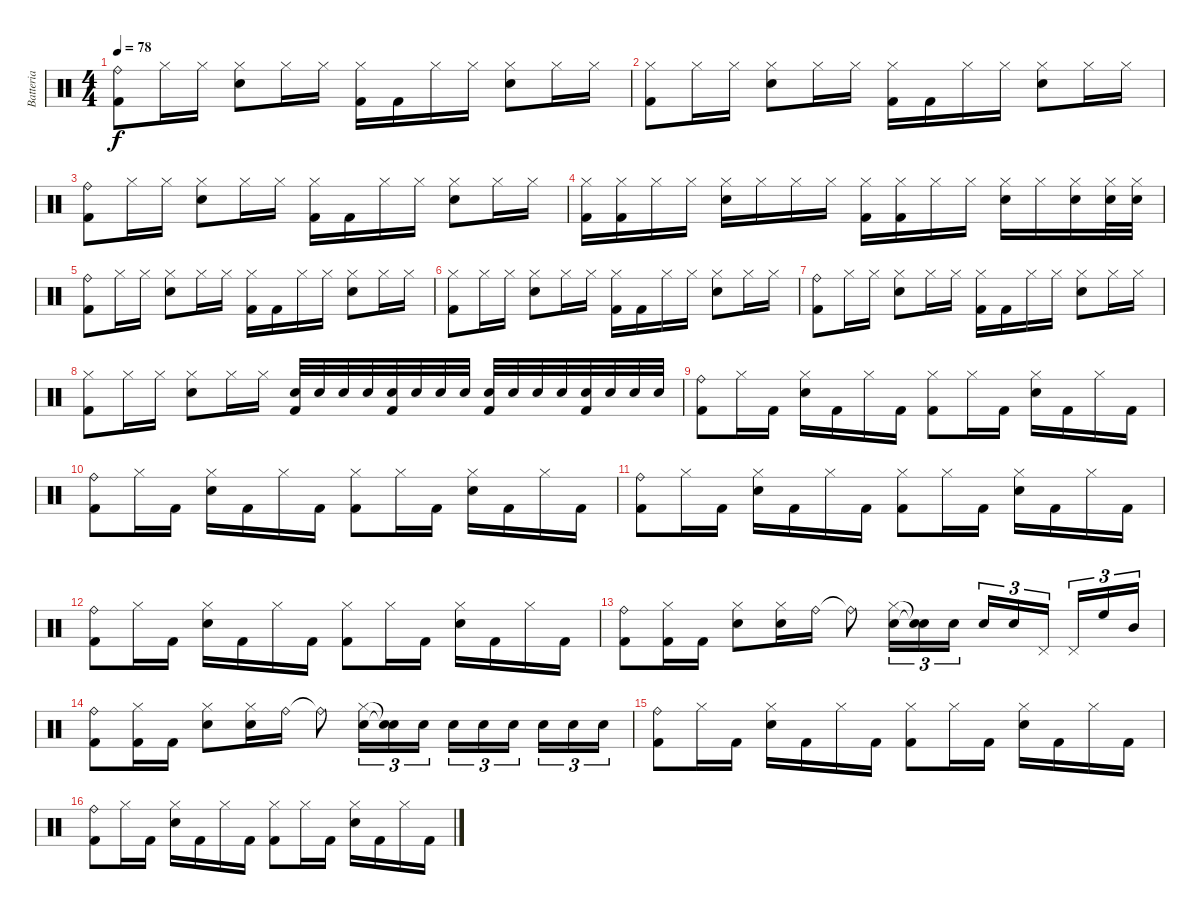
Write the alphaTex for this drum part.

\track ("Batteria" "Batteria") {instrument percussion}
\staff {score}
\articulation defaults
\ts (4 4)
\tempo 78
\clef neutral
\ks c
("Ride (bell)" "Kick (hit) 2").8{dy f} "Hi-Hat (closed)".16 "Hi-Hat (closed)".16 ("Hi-Hat (closed)" "Snare (hit) 2").8 "Hi-Hat (closed)".16 "Hi-Hat (closed)".16 ("Hi-Hat (closed)" "Kick (hit) 2").16 "Kick (hit) 2".16 "Hi-Hat (closed)".16 "Hi-Hat (closed)".16 ("Hi-Hat (closed)" "Snare (hit) 2").8 "Hi-Hat (closed)".16 "Hi-Hat (closed)".16 |
("Hi-Hat (closed)" "Kick (hit) 2").8 "Hi-Hat (closed)".16 "Hi-Hat (closed)".16 ("Hi-Hat (closed)" "Snare (hit) 2").8 "Hi-Hat (closed)".16 "Hi-Hat (closed)".16 ("Hi-Hat (closed)" "Kick (hit) 2").16 "Kick (hit) 2".16 "Hi-Hat (closed)".16 "Hi-Hat (closed)".16 ("Hi-Hat (closed)" "Snare (hit) 2").8 "Hi-Hat (closed)".16 "Hi-Hat (closed)".16 |
("Ride (bell)" "Kick (hit) 2").8 "Hi-Hat (closed)".16 "Hi-Hat (closed)".16 ("Hi-Hat (closed)" "Snare (hit) 2").8 "Hi-Hat (closed)".16 "Hi-Hat (closed)".16 ("Hi-Hat (closed)" "Kick (hit) 2").16 "Kick (hit) 2".16 "Hi-Hat (closed)".16 "Hi-Hat (closed)".16 ("Hi-Hat (closed)" "Snare (hit) 2").8 "Hi-Hat (closed)".16 "Hi-Hat (closed)".16 |
("Hi-Hat (closed)" "Kick (hit) 2").16 ("Hi-Hat (closed)" "Kick (hit) 2").16 "Hi-Hat (closed)".16 "Hi-Hat (closed)".16 ("Hi-Hat (closed)" "Snare (hit) 2").16 "Hi-Hat (closed)".16 "Hi-Hat (closed)".16 "Hi-Hat (closed)".16 ("Hi-Hat (closed)" "Kick (hit) 2").16 ("Hi-Hat (closed)" "Kick (hit) 2").16 "Hi-Hat (closed)".16 "Hi-Hat (closed)".16 ("Hi-Hat (closed)" "Snare (hit) 2").16 "Hi-Hat (closed)".16 ("Hi-Hat (closed)" "Snare (hit) 2").16 ("Hi-Hat (closed)" "Snare (hit) 2").32 ("Hi-Hat (closed)" "Snare (hit) 2").32 |
("Ride (bell)" "Kick (hit) 2").8 "Hi-Hat (closed)".16 "Hi-Hat (closed)".16 ("Hi-Hat (closed)" "Snare (hit) 2").8 "Hi-Hat (closed)".16 "Hi-Hat (closed)".16 ("Hi-Hat (closed)" "Kick (hit) 2").16 "Kick (hit) 2".16 "Hi-Hat (closed)".16 "Hi-Hat (closed)".16 ("Hi-Hat (closed)" "Snare (hit) 2").8 "Hi-Hat (closed)".16 "Hi-Hat (closed)".16 |
("Hi-Hat (closed)" "Kick (hit) 2").8 "Hi-Hat (closed)".16 "Hi-Hat (closed)".16 ("Hi-Hat (closed)" "Snare (hit) 2").8 "Hi-Hat (closed)".16 "Hi-Hat (closed)".16 ("Hi-Hat (closed)" "Kick (hit) 2").16 "Kick (hit) 2".16 "Hi-Hat (closed)".16 "Hi-Hat (closed)".16 ("Hi-Hat (closed)" "Snare (hit) 2").8 "Hi-Hat (closed)".16 "Hi-Hat (closed)".16 |
("Ride (bell)" "Kick (hit) 2").8 "Hi-Hat (closed)".16 "Hi-Hat (closed)".16 ("Hi-Hat (closed)" "Snare (hit) 2").8 "Hi-Hat (closed)".16 "Hi-Hat (closed)".16 ("Hi-Hat (closed)" "Kick (hit) 2").16 "Kick (hit) 2".16 "Hi-Hat (closed)".16 "Hi-Hat (closed)".16 ("Hi-Hat (closed)" "Snare (hit) 2").8 "Hi-Hat (closed)".16 "Hi-Hat (closed)".16 |
("Hi-Hat (closed)" "Kick (hit) 2").8 "Hi-Hat (closed)".16 "Hi-Hat (closed)".16 ("Hi-Hat (closed)" "Snare (hit) 2").8 "Hi-Hat (closed)".16 "Hi-Hat (closed)".16 ("Snare (hit) 2" "Kick (hit) 2").32 "Snare (hit) 2".32 "Snare (hit) 2".32 "Snare (hit) 2".32 ("Snare (hit) 2" "Kick (hit) 2").32 "Snare (hit) 2".32 "Snare (hit) 2".32 "Snare (hit) 2".32 ("Snare (hit) 2" "Kick (hit) 2").32 "Snare (hit) 2".32 "Snare (hit) 2".32 "Snare (hit) 2".32 ("Snare (hit) 2" "Kick (hit) 2").32 "Snare (hit) 2".32 "Snare (hit) 2".32 "Snare (hit) 2".32 |
("Ride (bell)" "Kick (hit) 2").8 "Hi-Hat (closed)".16 "Kick (hit) 2".16 ("Hi-Hat (closed)" "Snare (hit) 2").16 "Kick (hit) 2".16 "Hi-Hat (closed)".16 "Kick (hit) 2".16 ("Hi-Hat (closed)" "Kick (hit) 2").8 "Hi-Hat (closed)".16 "Kick (hit) 2".16 ("Hi-Hat (closed)" "Snare (hit) 2").16 "Kick (hit) 2".16 "Hi-Hat (closed)".16 "Kick (hit) 2".16 |
("Ride (bell)" "Kick (hit) 2").8 "Hi-Hat (closed)".16 "Kick (hit) 2".16 ("Hi-Hat (closed)" "Snare (hit) 2").16 "Kick (hit) 2".16 "Hi-Hat (closed)".16 "Kick (hit) 2".16 ("Hi-Hat (closed)" "Kick (hit) 2").8 "Hi-Hat (closed)".16 "Kick (hit) 2".16 ("Hi-Hat (closed)" "Snare (hit) 2").16 "Kick (hit) 2".16 "Hi-Hat (closed)".16 "Kick (hit) 2".16 |
("Ride (bell)" "Kick (hit) 2").8 "Hi-Hat (closed)".16 "Kick (hit) 2".16 ("Hi-Hat (closed)" "Snare (hit) 2").16 "Kick (hit) 2".16 "Hi-Hat (closed)".16 "Kick (hit) 2".16 ("Hi-Hat (closed)" "Kick (hit) 2").8 "Hi-Hat (closed)".16 "Kick (hit) 2".16 ("Hi-Hat (closed)" "Snare (hit) 2").16 "Kick (hit) 2".16 "Hi-Hat (closed)".16 "Kick (hit) 2".16 |
("Ride (bell)" "Kick (hit) 2").8 "Hi-Hat (closed)".16 "Kick (hit) 2".16 ("Hi-Hat (closed)" "Snare (hit) 2").16 "Kick (hit) 2".16 "Hi-Hat (closed)".16 "Kick (hit) 2".16 ("Hi-Hat (closed)" "Kick (hit) 2").8 "Hi-Hat (closed)".16 "Kick (hit) 2".16 ("Hi-Hat (closed)" "Snare (hit) 2").16 "Kick (hit) 2".16 "Hi-Hat (closed)".16 "Kick (hit) 2".16 |
("Ride (bell)" "Kick (hit) 2").8 ("Hi-Hat (closed)" "Kick (hit) 2").16 "Kick (hit) 2".16 ("Hi-Hat (closed)" "Snare (hit) 2").8 ("Hi-Hat (closed)" "Snare (hit) 2").16 "Ride (bell)".16 "Ride (bell)"{t}.8 ("Hi-Hat (closed)" "Snare (hit) 2").16{tu (3 2)} ("Snare (hit)"{t} "Snare (hit)"{t}).16{tu (3 2)} "Snare (hit) 2".16{tu (3 2)} "Snare (hit) 2".16{tu (3 2)} "Snare (hit) 2".16{tu (3 2)} "Pedal Hi-Hat (hit)".16{tu (3 2)} "Pedal Hi-Hat (hit)".16{tu (3 2)} "High Floor Tom (hit)".16{tu (3 2)} "Mid Tom (hit)".16{tu (3 2)} |
("Ride (bell)" "Kick (hit) 2").8 ("Hi-Hat (closed)" "Kick (hit) 2").16 "Kick (hit) 2".16 ("Hi-Hat (closed)" "Snare (hit) 2").8 ("Hi-Hat (closed)" "Snare (hit) 2").16 "Ride (bell)".16 "Ride (bell)"{t}.8 ("Hi-Hat (closed)" "Snare (hit) 2").16{tu (3 2)} ("Snare (hit)"{t} "Snare (hit)"{t}).16{tu (3 2)} "Snare (hit) 2".16{tu (3 2)} "Snare (hit) 2".16{tu (3 2)} "Snare (hit) 2".16{tu (3 2)} "Snare (hit) 2".16{tu (3 2)} "Snare (hit) 2".16{tu (3 2)} "Snare (hit) 2".16{tu (3 2)} "Snare (hit) 2".16{tu (3 2)} |
("Ride (bell)" "Kick (hit) 2").8 "Hi-Hat (closed)".16 "Kick (hit) 2".16 ("Hi-Hat (closed)" "Snare (hit) 2").16 "Kick (hit) 2".16 "Hi-Hat (closed)".16 "Kick (hit) 2".16 ("Hi-Hat (closed)" "Kick (hit) 2").8 "Hi-Hat (closed)".16 "Kick (hit) 2".16 ("Hi-Hat (closed)" "Snare (hit) 2").16 "Kick (hit) 2".16 "Hi-Hat (closed)".16 "Kick (hit) 2".16 |
("Ride (bell)" "Kick (hit) 2").8 "Hi-Hat (closed)".16 "Kick (hit) 2".16 ("Hi-Hat (closed)" "Snare (hit) 2").16 "Kick (hit) 2".16 "Hi-Hat (closed)".16 "Kick (hit) 2".16 ("Hi-Hat (closed)" "Kick (hit) 2").8 "Hi-Hat (closed)".16 "Kick (hit) 2".16 ("Hi-Hat (closed)" "Snare (hit) 2").16 "Kick (hit) 2".16 "Hi-Hat (closed)".16 "Kick (hit) 2".16
